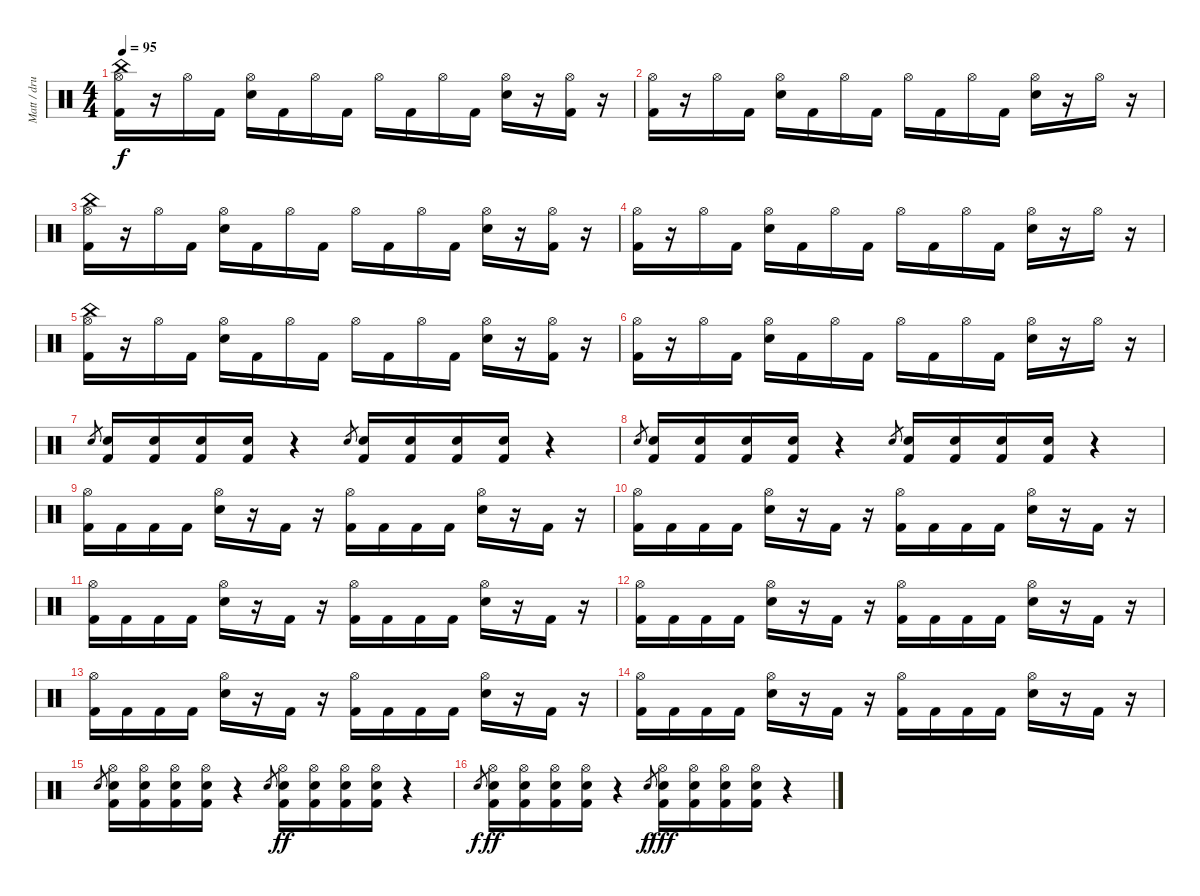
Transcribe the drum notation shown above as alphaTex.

\track ("Matt / drums" "Matt / dru") {instrument percussion}
\staff {score}
\articulation defaults
\ts (4 4)
\tempo 95
\clef neutral
\ks c
("China (hit)" "Hi-Hat (open)" "Kick (hit) 2").16{dy f} r.16 "Hi-Hat (open)".16 "Kick (hit) 2".16 ("Hi-Hat (open)" "Snare (hit) 2").16 "Kick (hit) 2".16 "Hi-Hat (open)".16 "Kick (hit) 2".16 "Hi-Hat (open)".16 "Kick (hit) 2".16 "Hi-Hat (open)".16 "Kick (hit) 2".16 ("Hi-Hat (open)" "Snare (hit) 2").16 r.16 ("Hi-Hat (open)" "Kick (hit) 2").16 r.16 |
("Hi-Hat (open)" "Kick (hit) 2").16 r.16 "Hi-Hat (open)".16 "Kick (hit) 2".16 ("Hi-Hat (open)" "Snare (hit) 2").16 "Kick (hit) 2".16 "Hi-Hat (open)".16 "Kick (hit) 2".16 "Hi-Hat (open)".16 "Kick (hit) 2".16 "Hi-Hat (open)".16 "Kick (hit) 2".16 ("Hi-Hat (open)" "Snare (hit) 2").16 r.16 "Hi-Hat (open)".16 r.16 |
("China (hit)" "Hi-Hat (open)" "Kick (hit) 2").16{volume 13} r.16 "Hi-Hat (open)".16 "Kick (hit) 2".16 ("Hi-Hat (open)" "Snare (hit) 2").16 "Kick (hit) 2".16 "Hi-Hat (open)".16 "Kick (hit) 2".16 "Hi-Hat (open)".16 "Kick (hit) 2".16 "Hi-Hat (open)".16 "Kick (hit) 2".16 ("Hi-Hat (open)" "Snare (hit) 2").16 r.16 ("Hi-Hat (open)" "Kick (hit) 2").16 r.16 |
("Hi-Hat (open)" "Kick (hit) 2").16 r.16 "Hi-Hat (open)".16 "Kick (hit) 2".16 ("Hi-Hat (open)" "Snare (hit) 2").16 "Kick (hit) 2".16 "Hi-Hat (open)".16 "Kick (hit) 2".16 "Hi-Hat (open)".16 "Kick (hit) 2".16 "Hi-Hat (open)".16 "Kick (hit) 2".16 ("Hi-Hat (open)" "Snare (hit) 2").16 r.16 "Hi-Hat (open)".16 r.16 |
("China (hit)" "Hi-Hat (open)" "Kick (hit) 2").16 r.16 "Hi-Hat (open)".16 "Kick (hit) 2".16 ("Hi-Hat (open)" "Snare (hit) 2").16 "Kick (hit) 2".16 "Hi-Hat (open)".16 "Kick (hit) 2".16 "Hi-Hat (open)".16 "Kick (hit) 2".16 "Hi-Hat (open)".16 "Kick (hit) 2".16 ("Hi-Hat (open)" "Snare (hit) 2").16 r.16 ("Hi-Hat (open)" "Kick (hit) 2").16 r.16 |
("Hi-Hat (open)" "Kick (hit) 2").16 r.16 "Hi-Hat (open)".16 "Kick (hit) 2".16 ("Hi-Hat (open)" "Snare (hit) 2").16 "Kick (hit) 2".16 "Hi-Hat (open)".16 "Kick (hit) 2".16 "Hi-Hat (open)".16 "Kick (hit) 2".16 "Hi-Hat (open)".16 "Kick (hit) 2".16 ("Hi-Hat (open)" "Snare (hit) 2").16 r.16 "Hi-Hat (open)".16 r.16 |
"Snare (hit) 2".8{gr} ("Snare (hit) 2" "Kick (hit) 2").16{volume 15} ("Snare (hit) 2" "Kick (hit) 2").16 ("Snare (hit) 2" "Kick (hit) 2").16 ("Snare (hit) 2" "Kick (hit) 2").16 r.4 "Snare (hit) 2".8{gr} ("Snare (hit) 2" "Kick (hit) 2").16 ("Snare (hit) 2" "Kick (hit) 2").16 ("Snare (hit) 2" "Kick (hit) 2").16 ("Snare (hit) 2" "Kick (hit) 2").16 r.4 |
"Snare (hit) 2".8{gr} ("Snare (hit) 2" "Kick (hit) 2").16 ("Snare (hit) 2" "Kick (hit) 2").16 ("Snare (hit) 2" "Kick (hit) 2").16 ("Snare (hit) 2" "Kick (hit) 2").16 r.4 "Snare (hit) 2".8{gr} ("Snare (hit) 2" "Kick (hit) 2").16 ("Snare (hit) 2" "Kick (hit) 2").16 ("Snare (hit) 2" "Kick (hit) 2").16 ("Snare (hit) 2" "Kick (hit) 2").16 r.4 |
("Hi-Hat (open)" "Kick (hit) 2").16{volume 16} "Kick (hit) 2".16 "Kick (hit) 2".16 "Kick (hit) 2".16 ("Hi-Hat (open)" "Snare (hit) 2").16 r.16 "Kick (hit) 2".16 r.16 ("Hi-Hat (open)" "Kick (hit) 2").16 "Kick (hit) 2".16 "Kick (hit) 2".16 "Kick (hit) 2".16 ("Hi-Hat (open)" "Snare (hit) 2").16 r.16 "Kick (hit) 2".16 r.16 |
("Hi-Hat (open)" "Kick (hit) 2").16 "Kick (hit) 2".16 "Kick (hit) 2".16 "Kick (hit) 2".16 ("Hi-Hat (open)" "Snare (hit) 2").16 r.16 "Kick (hit) 2".16 r.16 ("Hi-Hat (open)" "Kick (hit) 2").16 "Kick (hit) 2".16 "Kick (hit) 2".16 "Kick (hit) 2".16 ("Hi-Hat (open)" "Snare (hit) 2").16 r.16 "Kick (hit) 2".16 r.16 |
("Hi-Hat (open)" "Kick (hit) 2").16 "Kick (hit) 2".16 "Kick (hit) 2".16 "Kick (hit) 2".16 ("Hi-Hat (open)" "Snare (hit) 2").16 r.16 "Kick (hit) 2".16 r.16 ("Hi-Hat (open)" "Kick (hit) 2").16 "Kick (hit) 2".16 "Kick (hit) 2".16 "Kick (hit) 2".16 ("Hi-Hat (open)" "Snare (hit) 2").16 r.16 "Kick (hit) 2".16 r.16 |
("Hi-Hat (open)" "Kick (hit) 2").16 "Kick (hit) 2".16 "Kick (hit) 2".16 "Kick (hit) 2".16 ("Hi-Hat (open)" "Snare (hit) 2").16 r.16 "Kick (hit) 2".16 r.16 ("Hi-Hat (open)" "Kick (hit) 2").16 "Kick (hit) 2".16 "Kick (hit) 2".16 "Kick (hit) 2".16 ("Hi-Hat (open)" "Snare (hit) 2").16 r.16 "Kick (hit) 2".16 r.16 |
("Hi-Hat (open)" "Kick (hit) 2").16{volume 16} "Kick (hit) 2".16 "Kick (hit) 2".16 "Kick (hit) 2".16 ("Hi-Hat (open)" "Snare (hit) 2").16 r.16 "Kick (hit) 2".16 r.16 ("Hi-Hat (open)" "Kick (hit) 2").16 "Kick (hit) 2".16 "Kick (hit) 2".16 "Kick (hit) 2".16 ("Hi-Hat (open)" "Snare (hit) 2").16 r.16 "Kick (hit) 2".16 r.16 |
("Hi-Hat (open)" "Kick (hit) 2").16 "Kick (hit) 2".16 "Kick (hit) 2".16 "Kick (hit) 2".16 ("Hi-Hat (open)" "Snare (hit) 2").16 r.16 "Kick (hit) 2".16 r.16 ("Hi-Hat (open)" "Kick (hit) 2").16 "Kick (hit) 2".16 "Kick (hit) 2".16 "Kick (hit) 2".16 ("Hi-Hat (open)" "Snare (hit) 2").16 r.16 "Kick (hit) 2".16 r.16 |
"Snare (hit) 2".8{gr} ("Hi-Hat (open)" "Snare (hit) 2" "Kick (hit) 2").16{volume 15} ("Hi-Hat (open)" "Snare (hit) 2" "Kick (hit) 2").16 ("Hi-Hat (open)" "Snare (hit) 2" "Kick (hit) 2").16 ("Hi-Hat (open)" "Snare (hit) 2" "Kick (hit) 2").16 r.4 "Snare (hit) 2".8{gr} ("Hi-Hat (open)" "Snare (hit) 2" "Kick (hit) 2").16{dy ff} ("Hi-Hat (open)" "Snare (hit) 2" "Kick (hit) 2").16 ("Hi-Hat (open)" "Snare (hit) 2" "Kick (hit) 2").16 ("Hi-Hat (open)" "Snare (hit) 2" "Kick (hit) 2").16 r.4 |
"Snare (hit) 2".8{gr dy f} ("Hi-Hat (open)" "Snare (hit) 2" "Kick (hit) 2").16{dy ff volume 15} ("Hi-Hat (open)" "Snare (hit) 2" "Kick (hit) 2").16 ("Hi-Hat (open)" "Snare (hit) 2" "Kick (hit) 2").16 ("Hi-Hat (open)" "Snare (hit) 2" "Kick (hit) 2").16 r.4 "Snare (hit) 2".8{gr dy f} ("Hi-Hat (open)" "Snare (hit) 2" "Kick (hit) 2").16{dy fff} ("Hi-Hat (open)" "Snare (hit) 2" "Kick (hit) 2").16 ("Hi-Hat (open)" "Snare (hit) 2" "Kick (hit) 2").16 ("Hi-Hat (open)" "Snare (hit) 2" "Kick (hit) 2").16 r.4
